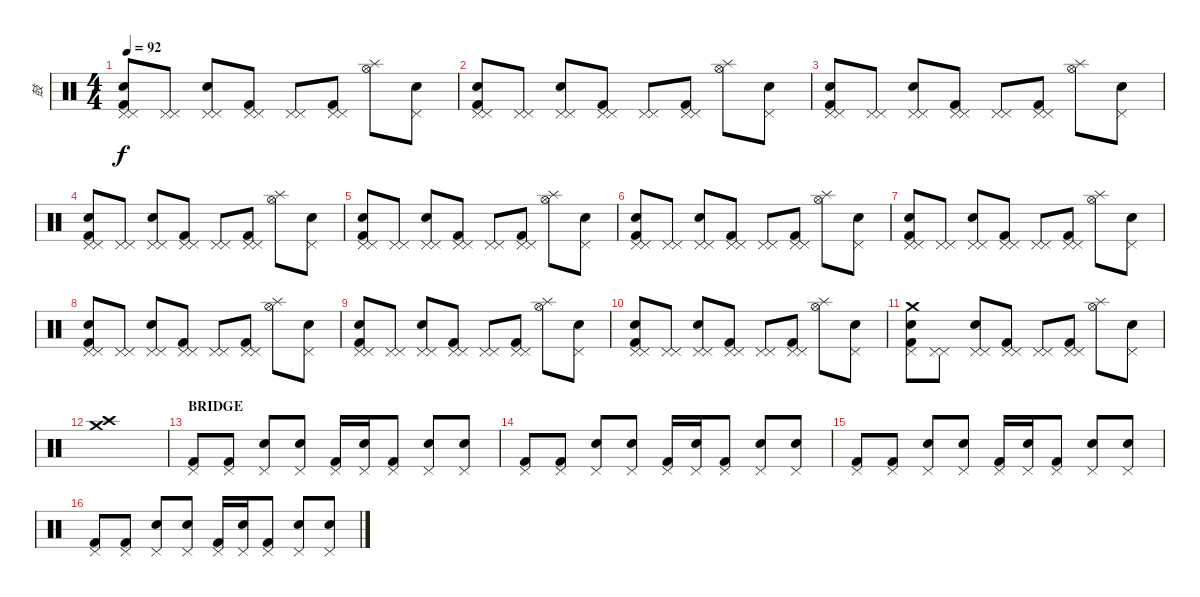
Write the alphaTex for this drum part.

\track ("鼓" "鼓") {instrument percussion}
\staff {score}
\articulation defaults
\ts (4 4)
\tempo 92
\clef neutral
\ks c
("Pedal Hi-Hat (hit)" "Pedal Hi-Hat (hit)" "Kick (hit) 2" "Snare (hit) 2").8{dy f} ("Pedal Hi-Hat (hit)" "Pedal Hi-Hat (hit)").8 ("Pedal Hi-Hat (hit)" "Pedal Hi-Hat (hit)" "Electric Snare (hit)").8 ("Pedal Hi-Hat (hit)" "Pedal Hi-Hat (hit)" "Kick (hit) 2").8 ("Pedal Hi-Hat (hit)" "Pedal Hi-Hat (hit)").8 ("Pedal Hi-Hat (hit)" "Pedal Hi-Hat (hit)" "Kick (hit) 2").8 ("Splash (hit)" "Hi-Hat (open)").8 ("Pedal Hi-Hat (hit)" "Electric Snare (hit)").8 |
("Pedal Hi-Hat (hit)" "Pedal Hi-Hat (hit)" "Kick (hit) 2" "Snare (hit) 2").8 ("Pedal Hi-Hat (hit)" "Pedal Hi-Hat (hit)").8 ("Pedal Hi-Hat (hit)" "Pedal Hi-Hat (hit)" "Electric Snare (hit)").8 ("Pedal Hi-Hat (hit)" "Pedal Hi-Hat (hit)" "Kick (hit) 2").8 ("Pedal Hi-Hat (hit)" "Pedal Hi-Hat (hit)").8 ("Pedal Hi-Hat (hit)" "Pedal Hi-Hat (hit)" "Kick (hit) 2").8 ("Splash (hit)" "Hi-Hat (open)").8 ("Pedal Hi-Hat (hit)" "Electric Snare (hit)").8 |
("Pedal Hi-Hat (hit)" "Pedal Hi-Hat (hit)" "Kick (hit) 2" "Snare (hit) 2").8 ("Pedal Hi-Hat (hit)" "Pedal Hi-Hat (hit)").8 ("Pedal Hi-Hat (hit)" "Pedal Hi-Hat (hit)" "Electric Snare (hit)").8 ("Pedal Hi-Hat (hit)" "Pedal Hi-Hat (hit)" "Kick (hit) 2").8 ("Pedal Hi-Hat (hit)" "Pedal Hi-Hat (hit)").8 ("Pedal Hi-Hat (hit)" "Pedal Hi-Hat (hit)" "Kick (hit) 2").8 ("Splash (hit)" "Hi-Hat (open)").8 ("Pedal Hi-Hat (hit)" "Electric Snare (hit)").8 |
("Pedal Hi-Hat (hit)" "Pedal Hi-Hat (hit)" "Kick (hit) 2" "Snare (hit) 2").8 ("Pedal Hi-Hat (hit)" "Pedal Hi-Hat (hit)").8 ("Pedal Hi-Hat (hit)" "Pedal Hi-Hat (hit)" "Electric Snare (hit)").8 ("Pedal Hi-Hat (hit)" "Pedal Hi-Hat (hit)" "Kick (hit) 2").8 ("Pedal Hi-Hat (hit)" "Pedal Hi-Hat (hit)").8 ("Pedal Hi-Hat (hit)" "Pedal Hi-Hat (hit)" "Kick (hit) 2").8 ("Splash (hit)" "Hi-Hat (open)").8 ("Pedal Hi-Hat (hit)" "Electric Snare (hit)").8 |
("Pedal Hi-Hat (hit)" "Pedal Hi-Hat (hit)" "Kick (hit) 2" "Snare (hit) 2").8 ("Pedal Hi-Hat (hit)" "Pedal Hi-Hat (hit)").8 ("Pedal Hi-Hat (hit)" "Pedal Hi-Hat (hit)" "Electric Snare (hit)").8 ("Pedal Hi-Hat (hit)" "Pedal Hi-Hat (hit)" "Kick (hit) 2").8 ("Pedal Hi-Hat (hit)" "Pedal Hi-Hat (hit)").8 ("Pedal Hi-Hat (hit)" "Pedal Hi-Hat (hit)" "Kick (hit) 2").8 ("Splash (hit)" "Hi-Hat (open)").8 ("Pedal Hi-Hat (hit)" "Electric Snare (hit)").8 |
("Pedal Hi-Hat (hit)" "Pedal Hi-Hat (hit)" "Kick (hit) 2" "Snare (hit) 2").8 ("Pedal Hi-Hat (hit)" "Pedal Hi-Hat (hit)").8 ("Pedal Hi-Hat (hit)" "Pedal Hi-Hat (hit)" "Electric Snare (hit)").8 ("Pedal Hi-Hat (hit)" "Pedal Hi-Hat (hit)" "Kick (hit) 2").8 ("Pedal Hi-Hat (hit)" "Pedal Hi-Hat (hit)").8 ("Pedal Hi-Hat (hit)" "Pedal Hi-Hat (hit)" "Kick (hit) 2").8 ("Splash (hit)" "Hi-Hat (open)").8 ("Pedal Hi-Hat (hit)" "Electric Snare (hit)").8 |
("Pedal Hi-Hat (hit)" "Pedal Hi-Hat (hit)" "Kick (hit) 2" "Snare (hit) 2").8 ("Pedal Hi-Hat (hit)" "Pedal Hi-Hat (hit)").8 ("Pedal Hi-Hat (hit)" "Pedal Hi-Hat (hit)" "Electric Snare (hit)").8 ("Pedal Hi-Hat (hit)" "Pedal Hi-Hat (hit)" "Kick (hit) 2").8 ("Pedal Hi-Hat (hit)" "Pedal Hi-Hat (hit)").8 ("Pedal Hi-Hat (hit)" "Pedal Hi-Hat (hit)" "Kick (hit) 2").8 ("Splash (hit)" "Hi-Hat (open)").8 ("Pedal Hi-Hat (hit)" "Electric Snare (hit)").8 |
("Pedal Hi-Hat (hit)" "Pedal Hi-Hat (hit)" "Kick (hit) 2" "Snare (hit) 2").8 ("Pedal Hi-Hat (hit)" "Pedal Hi-Hat (hit)").8 ("Pedal Hi-Hat (hit)" "Pedal Hi-Hat (hit)" "Electric Snare (hit)").8 ("Pedal Hi-Hat (hit)" "Pedal Hi-Hat (hit)" "Kick (hit) 2").8 ("Pedal Hi-Hat (hit)" "Pedal Hi-Hat (hit)").8 ("Pedal Hi-Hat (hit)" "Pedal Hi-Hat (hit)" "Kick (hit) 2").8 ("Splash (hit)" "Hi-Hat (open)").8 ("Pedal Hi-Hat (hit)" "Electric Snare (hit)").8 |
("Pedal Hi-Hat (hit)" "Pedal Hi-Hat (hit)" "Kick (hit) 2" "Snare (hit) 2").8 ("Pedal Hi-Hat (hit)" "Pedal Hi-Hat (hit)").8 ("Pedal Hi-Hat (hit)" "Pedal Hi-Hat (hit)" "Electric Snare (hit)").8 ("Pedal Hi-Hat (hit)" "Pedal Hi-Hat (hit)" "Kick (hit) 2").8 ("Pedal Hi-Hat (hit)" "Pedal Hi-Hat (hit)").8 ("Pedal Hi-Hat (hit)" "Pedal Hi-Hat (hit)" "Kick (hit) 2").8 ("Splash (hit)" "Hi-Hat (open)").8 ("Pedal Hi-Hat (hit)" "Electric Snare (hit)").8 |
("Pedal Hi-Hat (hit)" "Pedal Hi-Hat (hit)" "Kick (hit) 2" "Snare (hit) 2").8 ("Pedal Hi-Hat (hit)" "Pedal Hi-Hat (hit)").8 ("Pedal Hi-Hat (hit)" "Pedal Hi-Hat (hit)" "Electric Snare (hit)").8 ("Pedal Hi-Hat (hit)" "Pedal Hi-Hat (hit)" "Kick (hit) 2").8 ("Pedal Hi-Hat (hit)" "Pedal Hi-Hat (hit)").8 ("Pedal Hi-Hat (hit)" "Pedal Hi-Hat (hit)" "Kick (hit) 2").8 ("Splash (hit)" "Hi-Hat (open)").8 ("Pedal Hi-Hat (hit)" "Electric Snare (hit)").8 |
("Crash medium (hit)" "Pedal Hi-Hat (hit)" "Kick (hit) 2" "Snare (hit) 2").8 ("Pedal Hi-Hat (hit)" "Pedal Hi-Hat (hit)").8 ("Pedal Hi-Hat (hit)" "Pedal Hi-Hat (hit)" "Electric Snare (hit)").8 ("Pedal Hi-Hat (hit)" "Pedal Hi-Hat (hit)" "Kick (hit) 2").8 ("Pedal Hi-Hat (hit)" "Pedal Hi-Hat (hit)").8 ("Pedal Hi-Hat (hit)" "Pedal Hi-Hat (hit)" "Kick (hit) 2").8 ("Splash (hit)" "Hi-Hat (open)").8 ("Pedal Hi-Hat (hit)" "Electric Snare (hit)").8 |
("Crash medium (hit)" "Crash high (hit)").1 |
\section ("" "BRIDGE")
("Pedal Hi-Hat (hit)" "Kick (hit) 2").8{balance 15} ("Pedal Hi-Hat (hit)" "Kick (hit) 2").8 ("Pedal Hi-Hat (hit)" "Electric Snare (hit)").8 ("Pedal Hi-Hat (hit)" "Electric Snare (hit)").8 ("Pedal Hi-Hat (hit)" "Kick (hit) 2").16{balance 1} ("Pedal Hi-Hat (hit)" "Electric Snare (hit)").16 ("Pedal Hi-Hat (hit)" "Kick (hit) 2").8 ("Pedal Hi-Hat (hit)" "Electric Snare (hit)").8 ("Pedal Hi-Hat (hit)" "Electric Snare (hit)").8 |
("Pedal Hi-Hat (hit)" "Kick (hit) 2").8{balance 15} ("Pedal Hi-Hat (hit)" "Kick (hit) 2").8 ("Pedal Hi-Hat (hit)" "Electric Snare (hit)").8 ("Pedal Hi-Hat (hit)" "Electric Snare (hit)").8 ("Pedal Hi-Hat (hit)" "Kick (hit) 2").16{balance 1} ("Pedal Hi-Hat (hit)" "Electric Snare (hit)").16 ("Pedal Hi-Hat (hit)" "Kick (hit) 2").8 ("Pedal Hi-Hat (hit)" "Electric Snare (hit)").8 ("Pedal Hi-Hat (hit)" "Electric Snare (hit)").8 |
("Pedal Hi-Hat (hit)" "Kick (hit) 2").8{balance 15} ("Pedal Hi-Hat (hit)" "Kick (hit) 2").8 ("Pedal Hi-Hat (hit)" "Electric Snare (hit)").8 ("Pedal Hi-Hat (hit)" "Electric Snare (hit)").8 ("Pedal Hi-Hat (hit)" "Kick (hit) 2").16{balance 1} ("Pedal Hi-Hat (hit)" "Electric Snare (hit)").16 ("Pedal Hi-Hat (hit)" "Kick (hit) 2").8 ("Pedal Hi-Hat (hit)" "Electric Snare (hit)").8 ("Pedal Hi-Hat (hit)" "Electric Snare (hit)").8 |
("Pedal Hi-Hat (hit)" "Kick (hit) 2").8{balance 15} ("Pedal Hi-Hat (hit)" "Kick (hit) 2").8 ("Pedal Hi-Hat (hit)" "Electric Snare (hit)").8 ("Pedal Hi-Hat (hit)" "Electric Snare (hit)").8 ("Pedal Hi-Hat (hit)" "Kick (hit) 2").16{balance 1} ("Pedal Hi-Hat (hit)" "Electric Snare (hit)").16 ("Pedal Hi-Hat (hit)" "Kick (hit) 2").8 ("Pedal Hi-Hat (hit)" "Electric Snare (hit)").8 ("Pedal Hi-Hat (hit)" "Electric Snare (hit)").8
